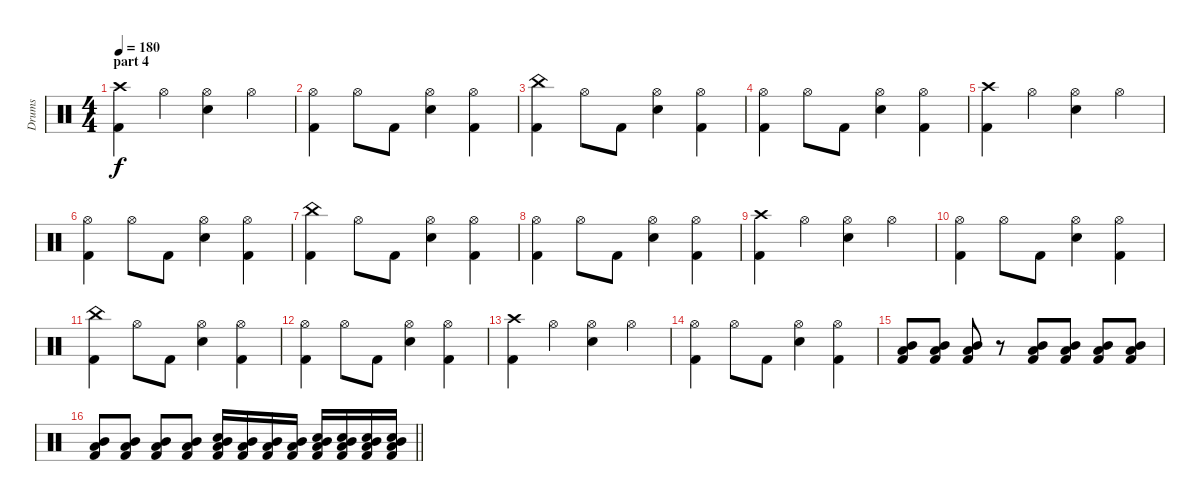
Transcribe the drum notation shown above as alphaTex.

\track ("Drums" "Drums") {instrument percussion}
\staff {score}
\articulation defaults
\ts (4 4)
\section ("" "part 4")
\tempo 180
\clef neutral
\ks c
("Crash high (hit)" "Kick (hit) 2").4{dy f} "Hi-Hat (open)".4 ("Electric Snare (hit)" "Hi-Hat (open)").4 "Hi-Hat (open)".4 |
("Hi-Hat (open)" "Kick (hit) 2").4 "Hi-Hat (open)".8 "Kick (hit) 2".8 ("Hi-Hat (open)" "Electric Snare (hit)").4 ("Hi-Hat (open)" "Kick (hit) 2").4 |
("China (hit)" "Kick (hit) 2").4 "Hi-Hat (open)".8 "Kick (hit) 2".8 ("Hi-Hat (open)" "Electric Snare (hit)").4 ("Hi-Hat (open)" "Kick (hit) 2").4 |
("Hi-Hat (open)" "Kick (hit) 2").4 "Hi-Hat (open)".8 "Kick (hit) 2".8 ("Hi-Hat (open)" "Electric Snare (hit)").4 ("Hi-Hat (open)" "Kick (hit) 2").4 |
("Crash high (hit)" "Kick (hit) 2").4 "Hi-Hat (open)".4 ("Electric Snare (hit)" "Hi-Hat (open)").4 "Hi-Hat (open)".4 |
("Hi-Hat (open)" "Kick (hit) 2").4 "Hi-Hat (open)".8 "Kick (hit) 2".8 ("Hi-Hat (open)" "Electric Snare (hit)").4 ("Hi-Hat (open)" "Kick (hit) 2").4 |
("China (hit)" "Kick (hit) 2").4 "Hi-Hat (open)".8 "Kick (hit) 2".8 ("Hi-Hat (open)" "Electric Snare (hit)").4 ("Hi-Hat (open)" "Kick (hit) 2").4 |
("Hi-Hat (open)" "Kick (hit) 2").4 "Hi-Hat (open)".8 "Kick (hit) 2".8 ("Hi-Hat (open)" "Electric Snare (hit)").4 ("Hi-Hat (open)" "Kick (hit) 2").4 |
("Crash high (hit)" "Kick (hit) 2").4 "Hi-Hat (open)".4 ("Electric Snare (hit)" "Hi-Hat (open)").4 "Hi-Hat (open)".4 |
("Hi-Hat (open)" "Kick (hit) 2").4 "Hi-Hat (open)".8 "Kick (hit) 2".8 ("Hi-Hat (open)" "Electric Snare (hit)").4 ("Hi-Hat (open)" "Kick (hit) 2").4 |
("China (hit)" "Kick (hit) 2").4 "Hi-Hat (open)".8 "Kick (hit) 2".8 ("Hi-Hat (open)" "Electric Snare (hit)").4 ("Hi-Hat (open)" "Kick (hit) 2").4 |
("Hi-Hat (open)" "Kick (hit) 2").4 "Hi-Hat (open)".8 "Kick (hit) 2".8 ("Hi-Hat (open)" "Electric Snare (hit)").4 ("Hi-Hat (open)" "Kick (hit) 2").4 |
("Crash high (hit)" "Kick (hit) 2").4 "Hi-Hat (open)".4 ("Electric Snare (hit)" "Hi-Hat (open)").4 "Hi-Hat (open)".4 |
("Hi-Hat (open)" "Kick (hit) 2").4 "Hi-Hat (open)".8 "Kick (hit) 2".8 ("Hi-Hat (open)" "Electric Snare (hit)").4 ("Hi-Hat (open)" "Kick (hit) 2").4 |
("Low Tom (hit)" "Mid Tom (hit)" "Kick (hit) 2").8 ("Low Tom (hit)" "Mid Tom (hit)" "Kick (hit) 2").8 ("Low Tom (hit)" "Mid Tom (hit)" "Kick (hit) 2").8 r.8 ("Low Tom (hit)" "Mid Tom (hit)" "Kick (hit) 2").8 ("Low Tom (hit)" "Mid Tom (hit)" "Kick (hit) 2").8 ("Low Tom (hit)" "Mid Tom (hit)" "Kick (hit) 2").8 ("Low Tom (hit)" "Mid Tom (hit)" "Kick (hit) 2").8 |
\barLineRight lightlight
("Low Tom (hit)" "Mid Tom (hit)" "Kick (hit) 2").8 ("Low Tom (hit)" "Mid Tom (hit)" "Kick (hit) 2").8 ("Low Tom (hit)" "Mid Tom (hit)" "Kick (hit) 2").8 ("Low Tom (hit)" "Mid Tom (hit)" "Kick (hit) 2").8 ("Low Tom (hit)" "Mid Tom (hit)" "Electric Snare (hit)" "Kick (hit) 2").16 ("Low Tom (hit)" "Mid Tom (hit)" "Kick (hit) 2").16 ("Low Tom (hit)" "Mid Tom (hit)" "Kick (hit) 2").16 ("Low Tom (hit)" "Mid Tom (hit)" "Kick (hit) 2").16 ("Low Tom (hit)" "Mid Tom (hit)" "Electric Snare (hit)" "Kick (hit) 2").16 ("Low Tom (hit)" "Mid Tom (hit)" "Electric Snare (hit)" "Kick (hit) 2").16 ("Low Tom (hit)" "Mid Tom (hit)" "Electric Snare (hit)" "Kick (hit) 2").16 ("Low Tom (hit)" "Mid Tom (hit)" "Electric Snare (hit)" "Kick (hit) 2").16
